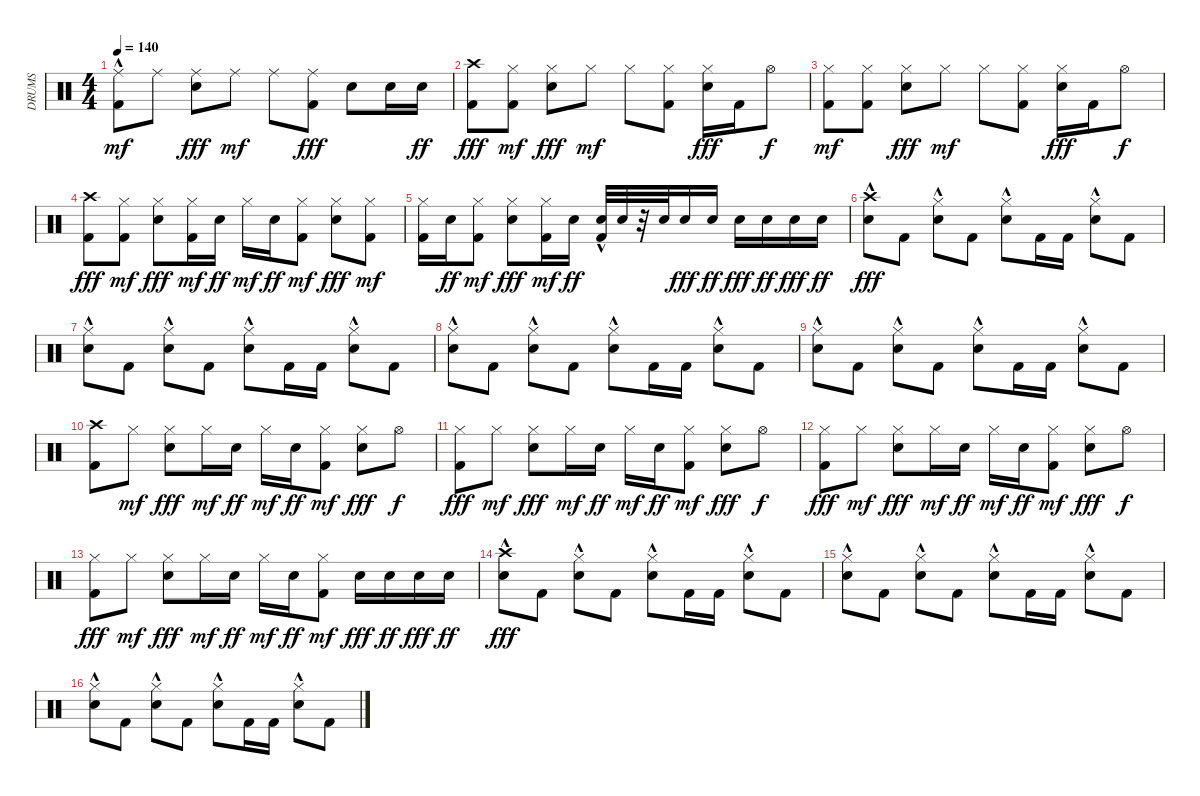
\track ("DRUMS" "DRUMS") {instrument percussion}
\staff {score}
\articulation defaults
\ts (4 4)
\tempo 140
\clef neutral
\ks c
("Kick (hit) 2"{hac} "Ride (middle)").8{dy mf} "Ride (middle)".8 ("Electric Snare (hit)" "Ride (middle)").8{dy fff} "Ride (middle)".8{dy mf} "Ride (middle)".8 ("Ride (middle)" "Kick (hit) 2").8{dy fff} "Electric Snare (hit)".8 "Electric Snare (hit)".16 "Electric Snare (hit)".16{dy ff} |
("Kick (hit) 2" "Crash high (hit)").8{dy fff} ("Kick (hit) 2" "Hi-Hat (closed)").8{dy mf} ("Electric Snare (hit)" "Hi-Hat (closed)").8{dy fff} "Hi-Hat (closed)".8{dy mf} "Hi-Hat (closed)".8 ("Kick (hit) 2" "Hi-Hat (closed)").8 ("Electric Snare (hit)" "Hi-Hat (closed)").16{dy fff} "Kick (hit) 2".16 "Hi-Hat (open)".8{dy f} |
("Kick (hit) 2" "Hi-Hat (closed)").8{dy mf} ("Kick (hit) 2" "Hi-Hat (closed)").8 ("Electric Snare (hit)" "Hi-Hat (closed)").8{dy fff} "Hi-Hat (closed)".8{dy mf} "Hi-Hat (closed)".8 ("Kick (hit) 2" "Hi-Hat (closed)").8 ("Electric Snare (hit)" "Hi-Hat (closed)").16{dy fff} "Kick (hit) 2".16 "Hi-Hat (open)".8{dy f} |
("Kick (hit) 2" "Crash high (hit)").8{dy fff} ("Kick (hit) 2" "Hi-Hat (closed)").8{dy mf} ("Electric Snare (hit)" "Hi-Hat (closed)").8{dy fff} ("Kick (hit) 2" "Hi-Hat (closed)").16{dy mf} "Electric Snare (hit)".16{dy ff} "Hi-Hat (closed)".16{dy mf} "Electric Snare (hit)".16{dy ff} ("Kick (hit) 2" "Hi-Hat (closed)").8{dy mf} ("Electric Snare (hit)" "Hi-Hat (closed)").8{dy fff} ("Kick (hit) 2" "Hi-Hat (closed)").8{dy mf} |
("Kick (hit) 2" "Hi-Hat (closed)").16 "Electric Snare (hit)".16{dy ff} ("Kick (hit) 2" "Hi-Hat (closed)").8{dy mf} ("Electric Snare (hit)" "Hi-Hat (closed)").8{dy fff} ("Kick (hit) 2" "Hi-Hat (closed)").16{dy mf} "Electric Snare (hit)".16{dy ff} ("Kick (hit) 2"{hac} "Electric Snare (hit)").32 "Electric Snare (hit)".32 r.32 "Electric Snare (hit)".32 "Electric Snare (hit)".16{dy fff} "Electric Snare (hit)".16{dy ff} "Electric Snare (hit)".16{dy fff} "Electric Snare (hit)".16{dy ff} "Electric Snare (hit)".16{dy fff} "Electric Snare (hit)".16{dy ff} |
("Electric Snare (hit)"{hac} "Crash high (hit)"{hac}).8{dy fff} "Kick (hit) 2".8 ("Electric Snare (hit)"{hac} "Hi-Hat (closed)"{hac}).8 "Kick (hit) 2".8 ("Electric Snare (hit)"{hac} "Hi-Hat (closed)"{hac}).8 "Kick (hit) 2".16 "Kick (hit) 2".16 ("Electric Snare (hit)"{hac} "Hi-Hat (closed)"{hac}).8 "Kick (hit) 2".8 |
("Electric Snare (hit)"{hac} "Hi-Hat (closed)"{hac}).8 "Kick (hit) 2".8 ("Electric Snare (hit)"{hac} "Hi-Hat (closed)"{hac}).8 "Kick (hit) 2".8 ("Electric Snare (hit)"{hac} "Hi-Hat (closed)"{hac}).8 "Kick (hit) 2".16 "Kick (hit) 2".16 ("Electric Snare (hit)"{hac} "Hi-Hat (closed)"{hac}).8 "Kick (hit) 2".8 |
("Electric Snare (hit)"{hac} "Hi-Hat (closed)"{hac}).8 "Kick (hit) 2".8 ("Electric Snare (hit)"{hac} "Hi-Hat (closed)"{hac}).8 "Kick (hit) 2".8 ("Electric Snare (hit)"{hac} "Hi-Hat (closed)"{hac}).8 "Kick (hit) 2".16 "Kick (hit) 2".16 ("Electric Snare (hit)"{hac} "Hi-Hat (closed)"{hac}).8 "Kick (hit) 2".8 |
("Electric Snare (hit)"{hac} "Hi-Hat (closed)"{hac}).8 "Kick (hit) 2".8 ("Electric Snare (hit)"{hac} "Hi-Hat (closed)"{hac}).8 "Kick (hit) 2".8 ("Electric Snare (hit)"{hac} "Hi-Hat (closed)"{hac}).8 "Kick (hit) 2".16 "Kick (hit) 2".16 ("Electric Snare (hit)"{hac} "Hi-Hat (closed)"{hac}).8 "Kick (hit) 2".8 |
("Kick (hit) 2" "Crash high (hit)").8 "Hi-Hat (closed)".8{dy mf} ("Hi-Hat (closed)" "Electric Snare (hit)").8{dy fff} "Hi-Hat (closed)".16{dy mf} "Electric Snare (hit)".16{dy ff} "Hi-Hat (closed)".16{dy mf} "Electric Snare (hit)".16{dy ff} ("Kick (hit) 2" "Hi-Hat (closed)").8{dy mf} ("Hi-Hat (closed)" "Electric Snare (hit)").8{dy fff} "Hi-Hat (open)".8{dy f} |
("Kick (hit) 2" "Hi-Hat (closed)").8{dy fff} "Hi-Hat (closed)".8{dy mf} ("Hi-Hat (closed)" "Electric Snare (hit)").8{dy fff} "Hi-Hat (closed)".16{dy mf} "Electric Snare (hit)".16{dy ff} "Hi-Hat (closed)".16{dy mf} "Electric Snare (hit)".16{dy ff} ("Kick (hit) 2" "Hi-Hat (closed)").8{dy mf} ("Hi-Hat (closed)" "Electric Snare (hit)").8{dy fff} "Hi-Hat (open)".8{dy f} |
("Kick (hit) 2" "Hi-Hat (closed)").8{dy fff} "Hi-Hat (closed)".8{dy mf} ("Hi-Hat (closed)" "Electric Snare (hit)").8{dy fff} "Hi-Hat (closed)".16{dy mf} "Electric Snare (hit)".16{dy ff} "Hi-Hat (closed)".16{dy mf} "Electric Snare (hit)".16{dy ff} ("Kick (hit) 2" "Hi-Hat (closed)").8{dy mf} ("Hi-Hat (closed)" "Electric Snare (hit)").8{dy fff} "Hi-Hat (open)".8{dy f} |
("Kick (hit) 2" "Hi-Hat (closed)").8{dy fff} "Hi-Hat (closed)".8{dy mf} ("Hi-Hat (closed)" "Electric Snare (hit)").8{dy fff} "Hi-Hat (closed)".16{dy mf} "Electric Snare (hit)".16{dy ff} "Hi-Hat (closed)".16{dy mf} "Electric Snare (hit)".16{dy ff} ("Kick (hit) 2" "Hi-Hat (closed)").8{dy mf} "Electric Snare (hit)".16{dy fff} "Electric Snare (hit)".16{dy ff} "Electric Snare (hit)".16{dy fff} "Electric Snare (hit)".16{dy ff} |
("Electric Snare (hit)"{hac} "Crash high (hit)"{hac}).8{dy fff} "Kick (hit) 2".8 ("Electric Snare (hit)"{hac} "Hi-Hat (closed)"{hac}).8 "Kick (hit) 2".8 ("Electric Snare (hit)"{hac} "Hi-Hat (closed)"{hac}).8 "Kick (hit) 2".16 "Kick (hit) 2".16 ("Electric Snare (hit)"{hac} "Hi-Hat (closed)"{hac}).8 "Kick (hit) 2".8 |
("Electric Snare (hit)"{hac} "Hi-Hat (closed)"{hac}).8 "Kick (hit) 2".8 ("Electric Snare (hit)"{hac} "Hi-Hat (closed)"{hac}).8 "Kick (hit) 2".8 ("Electric Snare (hit)"{hac} "Hi-Hat (closed)"{hac}).8 "Kick (hit) 2".16 "Kick (hit) 2".16 ("Electric Snare (hit)"{hac} "Hi-Hat (closed)"{hac}).8 "Kick (hit) 2".8 |
("Electric Snare (hit)"{hac} "Hi-Hat (closed)"{hac}).8 "Kick (hit) 2".8 ("Electric Snare (hit)"{hac} "Hi-Hat (closed)"{hac}).8 "Kick (hit) 2".8 ("Electric Snare (hit)"{hac} "Hi-Hat (closed)"{hac}).8 "Kick (hit) 2".16 "Kick (hit) 2".16 ("Electric Snare (hit)"{hac} "Hi-Hat (closed)"{hac}).8 "Kick (hit) 2".8
